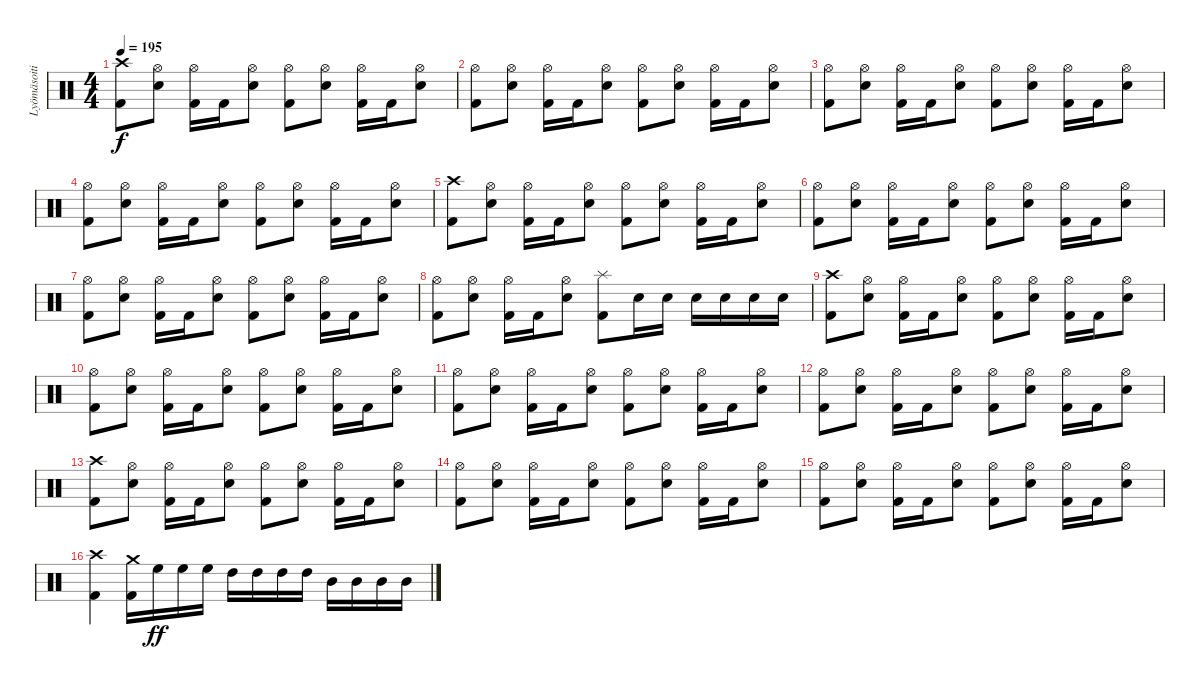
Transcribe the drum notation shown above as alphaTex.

\track ("Lyömäsoitin" "Lyömäsoiti") {instrument percussion}
\staff {score}
\articulation defaults
\ts (4 4)
\tempo 195
\clef neutral
\ks c
("Crash high (hit)" "Kick (hit) 2").8{dy f} ("Hi-Hat (open)" "Snare (hit) 2").8 ("Hi-Hat (open)" "Kick (hit) 2").16 "Kick (hit) 2".16 ("Hi-Hat (open)" "Snare (hit) 2").8 ("Hi-Hat (open)" "Kick (hit) 2").8 ("Hi-Hat (open)" "Snare (hit) 2").8 ("Hi-Hat (open)" "Kick (hit) 2").16 "Kick (hit) 2".16 ("Hi-Hat (open)" "Snare (hit) 2").8 |
("Hi-Hat (open)" "Kick (hit) 2").8 ("Hi-Hat (open)" "Snare (hit) 2").8 ("Hi-Hat (open)" "Kick (hit) 2").16 "Kick (hit) 2".16 ("Hi-Hat (open)" "Snare (hit) 2").8 ("Hi-Hat (open)" "Kick (hit) 2").8 ("Hi-Hat (open)" "Snare (hit) 2").8 ("Hi-Hat (open)" "Kick (hit) 2").16 "Kick (hit) 2".16 ("Hi-Hat (open)" "Snare (hit) 2").8 |
("Hi-Hat (open)" "Kick (hit) 2").8 ("Hi-Hat (open)" "Snare (hit) 2").8 ("Hi-Hat (open)" "Kick (hit) 2").16 "Kick (hit) 2".16 ("Hi-Hat (open)" "Snare (hit) 2").8 ("Hi-Hat (open)" "Kick (hit) 2").8 ("Hi-Hat (open)" "Snare (hit) 2").8 ("Hi-Hat (open)" "Kick (hit) 2").16 "Kick (hit) 2".16 ("Hi-Hat (open)" "Snare (hit) 2").8 |
("Hi-Hat (open)" "Kick (hit) 2").8 ("Hi-Hat (open)" "Snare (hit) 2").8 ("Hi-Hat (open)" "Kick (hit) 2").16 "Kick (hit) 2".16 ("Hi-Hat (open)" "Snare (hit) 2").8 ("Hi-Hat (open)" "Kick (hit) 2").8 ("Hi-Hat (open)" "Snare (hit) 2").8 ("Hi-Hat (open)" "Kick (hit) 2").16 "Kick (hit) 2".16 ("Hi-Hat (open)" "Snare (hit) 2").8 |
("Crash high (hit)" "Kick (hit) 2").8 ("Hi-Hat (open)" "Snare (hit) 2").8 ("Hi-Hat (open)" "Kick (hit) 2").16 "Kick (hit) 2".16 ("Hi-Hat (open)" "Snare (hit) 2").8 ("Hi-Hat (open)" "Kick (hit) 2").8 ("Hi-Hat (open)" "Snare (hit) 2").8 ("Hi-Hat (open)" "Kick (hit) 2").16 "Kick (hit) 2".16 ("Hi-Hat (open)" "Snare (hit) 2").8 |
("Hi-Hat (open)" "Kick (hit) 2").8 ("Hi-Hat (open)" "Snare (hit) 2").8 ("Hi-Hat (open)" "Kick (hit) 2").16 "Kick (hit) 2".16 ("Hi-Hat (open)" "Snare (hit) 2").8 ("Hi-Hat (open)" "Kick (hit) 2").8 ("Hi-Hat (open)" "Snare (hit) 2").8 ("Hi-Hat (open)" "Kick (hit) 2").16 "Kick (hit) 2".16 ("Hi-Hat (open)" "Snare (hit) 2").8 |
("Hi-Hat (open)" "Kick (hit) 2").8 ("Hi-Hat (open)" "Snare (hit) 2").8 ("Hi-Hat (open)" "Kick (hit) 2").16 "Kick (hit) 2".16 ("Hi-Hat (open)" "Snare (hit) 2").8 ("Hi-Hat (open)" "Kick (hit) 2").8 ("Hi-Hat (open)" "Snare (hit) 2").8 ("Hi-Hat (open)" "Kick (hit) 2").16 "Kick (hit) 2".16 ("Hi-Hat (open)" "Snare (hit) 2").8 |
("Hi-Hat (open)" "Kick (hit) 2").8 ("Hi-Hat (open)" "Snare (hit) 2").8 ("Hi-Hat (open)" "Kick (hit) 2").16 "Kick (hit) 2".16 ("Hi-Hat (open)" "Snare (hit) 2").8 ("Splash (hit)" "Kick (hit) 2").8 "Snare (hit) 2".16 "Snare (hit) 2".16 "Snare (hit) 2".16 "Snare (hit) 2".16 "Snare (hit) 2".16 "Snare (hit) 2".16 |
("Crash high (hit)" "Kick (hit) 2").8 ("Hi-Hat (open)" "Snare (hit) 2").8 ("Hi-Hat (open)" "Kick (hit) 2").16 "Kick (hit) 2".16 ("Hi-Hat (open)" "Snare (hit) 2").8 ("Hi-Hat (open)" "Kick (hit) 2").8 ("Hi-Hat (open)" "Snare (hit) 2").8 ("Hi-Hat (open)" "Kick (hit) 2").16 "Kick (hit) 2".16 ("Hi-Hat (open)" "Snare (hit) 2").8 |
("Hi-Hat (open)" "Kick (hit) 2").8 ("Hi-Hat (open)" "Snare (hit) 2").8 ("Hi-Hat (open)" "Kick (hit) 2").16 "Kick (hit) 2".16 ("Hi-Hat (open)" "Snare (hit) 2").8 ("Hi-Hat (open)" "Kick (hit) 2").8 ("Hi-Hat (open)" "Snare (hit) 2").8 ("Hi-Hat (open)" "Kick (hit) 2").16 "Kick (hit) 2".16 ("Hi-Hat (open)" "Snare (hit) 2").8 |
("Hi-Hat (open)" "Kick (hit) 2").8 ("Hi-Hat (open)" "Snare (hit) 2").8 ("Hi-Hat (open)" "Kick (hit) 2").16 "Kick (hit) 2".16 ("Hi-Hat (open)" "Snare (hit) 2").8 ("Hi-Hat (open)" "Kick (hit) 2").8 ("Hi-Hat (open)" "Snare (hit) 2").8 ("Hi-Hat (open)" "Kick (hit) 2").16 "Kick (hit) 2".16 ("Hi-Hat (open)" "Snare (hit) 2").8 |
("Hi-Hat (open)" "Kick (hit) 2").8 ("Hi-Hat (open)" "Snare (hit) 2").8 ("Hi-Hat (open)" "Kick (hit) 2").16 "Kick (hit) 2".16 ("Hi-Hat (open)" "Snare (hit) 2").8 ("Hi-Hat (open)" "Kick (hit) 2").8 ("Hi-Hat (open)" "Snare (hit) 2").8 ("Hi-Hat (open)" "Kick (hit) 2").16 "Kick (hit) 2".16 ("Hi-Hat (open)" "Snare (hit) 2").8 |
("Crash high (hit)" "Kick (hit) 2").8 ("Hi-Hat (open)" "Snare (hit) 2").8 ("Hi-Hat (open)" "Kick (hit) 2").16 "Kick (hit) 2".16 ("Hi-Hat (open)" "Snare (hit) 2").8 ("Hi-Hat (open)" "Kick (hit) 2").8 ("Hi-Hat (open)" "Snare (hit) 2").8 ("Hi-Hat (open)" "Kick (hit) 2").16 "Kick (hit) 2".16 ("Hi-Hat (open)" "Snare (hit) 2").8 |
("Hi-Hat (open)" "Kick (hit) 2").8 ("Hi-Hat (open)" "Snare (hit) 2").8 ("Hi-Hat (open)" "Kick (hit) 2").16 "Kick (hit) 2".16 ("Hi-Hat (open)" "Snare (hit) 2").8 ("Hi-Hat (open)" "Kick (hit) 2").8 ("Hi-Hat (open)" "Snare (hit) 2").8 ("Hi-Hat (open)" "Kick (hit) 2").16 "Kick (hit) 2".16 ("Hi-Hat (open)" "Snare (hit) 2").8 |
("Hi-Hat (open)" "Kick (hit) 2").8 ("Hi-Hat (open)" "Snare (hit) 2").8 ("Hi-Hat (open)" "Kick (hit) 2").16 "Kick (hit) 2".16 ("Hi-Hat (open)" "Snare (hit) 2").8 ("Hi-Hat (open)" "Kick (hit) 2").8 ("Hi-Hat (open)" "Snare (hit) 2").8 ("Hi-Hat (open)" "Kick (hit) 2").16 "Kick (hit) 2".16 ("Hi-Hat (open)" "Snare (hit) 2").8 |
("Crash high (hit)" "Kick (hit) 2").4 ("Crash medium (hit)" "Kick (hit) 2").16 "High Floor Tom (hit)".16{dy ff} "High Floor Tom (hit)".16 "High Floor Tom (hit)".16 "High Tom (hit)".16 "High Tom (hit)".16 "High Tom (hit)".16 "High Tom (hit)".16 "Mid Tom (hit)".16 "Mid Tom (hit)".16 "Mid Tom (hit)".16 "Mid Tom (hit)".16
